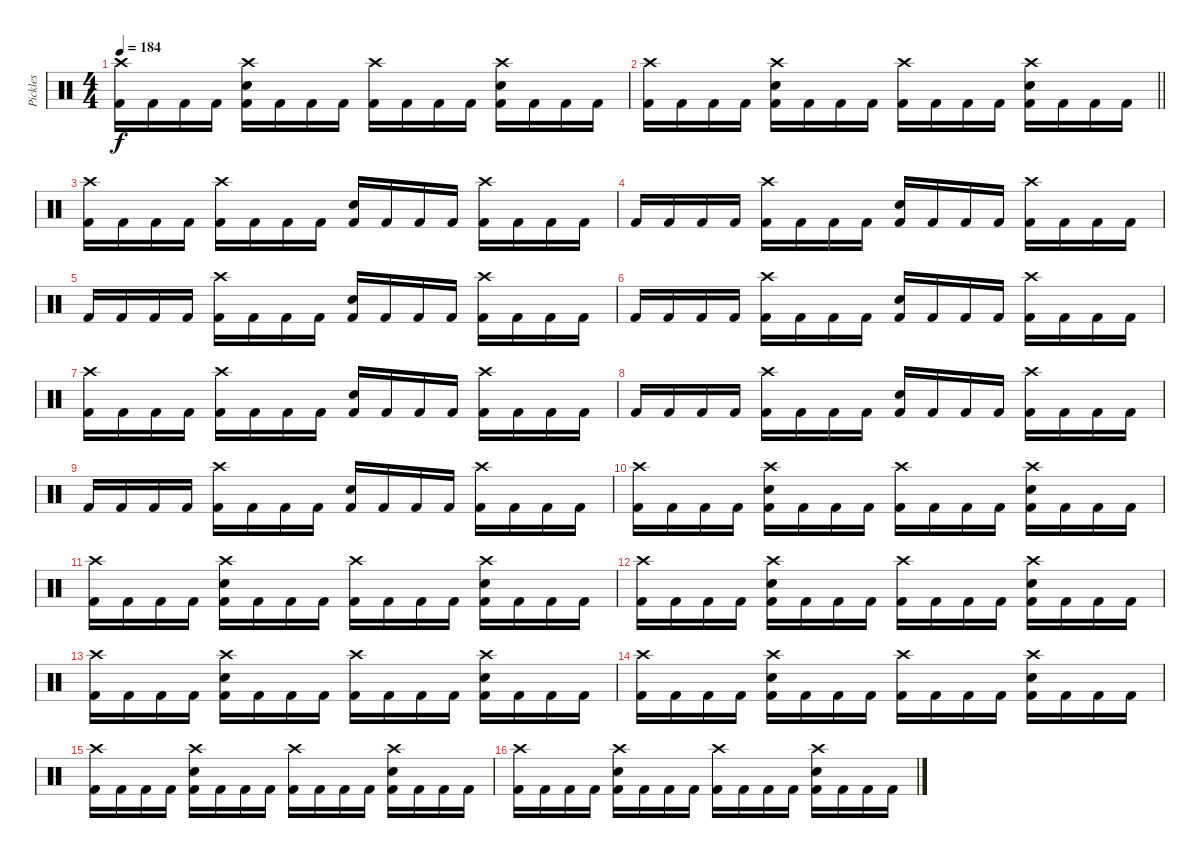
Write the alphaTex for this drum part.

\track ("Pickles" "Pickles") {instrument percussion}
\staff {score}
\articulation defaults
\ts (4 4)
\tempo 184
\clef neutral
\ks aminor
("Crash high (hit)" "Kick (hit) 2").16{dy f} "Kick (hit) 2".16 "Kick (hit) 2".16 "Kick (hit) 2".16 ("Crash high (hit)" "Snare (hit) 2" "Kick (hit) 2").16 "Kick (hit) 2".16 "Kick (hit) 2".16 "Kick (hit) 2".16 ("Crash high (hit)" "Kick (hit) 2").16 "Kick (hit) 2".16 "Kick (hit) 2".16 "Kick (hit) 2".16 ("Crash high (hit)" "Snare (hit) 2" "Kick (hit) 2").16 "Kick (hit) 2".16 "Kick (hit) 2".16 "Kick (hit) 2".16 |
\barLineRight lightlight
("Crash high (hit)" "Kick (hit) 2").16 "Kick (hit) 2".16 "Kick (hit) 2".16 "Kick (hit) 2".16 ("Crash high (hit)" "Snare (hit) 2" "Kick (hit) 2").16 "Kick (hit) 2".16 "Kick (hit) 2".16 "Kick (hit) 2".16 ("Crash high (hit)" "Kick (hit) 2").16 "Kick (hit) 2".16 "Kick (hit) 2".16 "Kick (hit) 2".16 ("Crash high (hit)" "Snare (hit) 2" "Kick (hit) 2").16 "Kick (hit) 2".16 "Kick (hit) 2".16 "Kick (hit) 2".16 |
("Crash high (hit)" "Kick (hit) 2").16 "Kick (hit) 2".16 "Kick (hit) 2".16 "Kick (hit) 2".16 ("Crash high (hit)" "Kick (hit) 2").16 "Kick (hit) 2".16 "Kick (hit) 2".16 "Kick (hit) 2".16 ("Snare (hit) 2" "Kick (hit) 2").16 "Kick (hit) 2".16 "Kick (hit) 2".16 "Kick (hit) 2".16 ("Crash high (hit)" "Kick (hit) 2").16 "Kick (hit) 2".16 "Kick (hit) 2".16 "Kick (hit) 2".16 |
"Kick (hit) 2".16 "Kick (hit) 2".16 "Kick (hit) 2".16 "Kick (hit) 2".16 ("Crash high (hit)" "Kick (hit) 2").16 "Kick (hit) 2".16 "Kick (hit) 2".16 "Kick (hit) 2".16 ("Snare (hit) 2" "Kick (hit) 2").16 "Kick (hit) 2".16 "Kick (hit) 2".16 "Kick (hit) 2".16 ("Crash high (hit)" "Kick (hit) 2").16 "Kick (hit) 2".16 "Kick (hit) 2".16 "Kick (hit) 2".16 |
"Kick (hit) 2".16 "Kick (hit) 2".16 "Kick (hit) 2".16 "Kick (hit) 2".16 ("Crash high (hit)" "Kick (hit) 2").16 "Kick (hit) 2".16 "Kick (hit) 2".16 "Kick (hit) 2".16 ("Snare (hit) 2" "Kick (hit) 2").16 "Kick (hit) 2".16 "Kick (hit) 2".16 "Kick (hit) 2".16 ("Crash high (hit)" "Kick (hit) 2").16 "Kick (hit) 2".16 "Kick (hit) 2".16 "Kick (hit) 2".16 |
"Kick (hit) 2".16 "Kick (hit) 2".16 "Kick (hit) 2".16 "Kick (hit) 2".16 ("Crash high (hit)" "Kick (hit) 2").16 "Kick (hit) 2".16 "Kick (hit) 2".16 "Kick (hit) 2".16 ("Snare (hit) 2" "Kick (hit) 2").16 "Kick (hit) 2".16 "Kick (hit) 2".16 "Kick (hit) 2".16 ("Crash high (hit)" "Kick (hit) 2").16 "Kick (hit) 2".16 "Kick (hit) 2".16 "Kick (hit) 2".16 |
("Crash high (hit)" "Kick (hit) 2").16 "Kick (hit) 2".16 "Kick (hit) 2".16 "Kick (hit) 2".16 ("Crash high (hit)" "Kick (hit) 2").16 "Kick (hit) 2".16 "Kick (hit) 2".16 "Kick (hit) 2".16 ("Snare (hit) 2" "Kick (hit) 2").16 "Kick (hit) 2".16 "Kick (hit) 2".16 "Kick (hit) 2".16 ("Crash high (hit)" "Kick (hit) 2").16 "Kick (hit) 2".16 "Kick (hit) 2".16 "Kick (hit) 2".16 |
"Kick (hit) 2".16 "Kick (hit) 2".16 "Kick (hit) 2".16 "Kick (hit) 2".16 ("Crash high (hit)" "Kick (hit) 2").16 "Kick (hit) 2".16 "Kick (hit) 2".16 "Kick (hit) 2".16 ("Snare (hit) 2" "Kick (hit) 2").16 "Kick (hit) 2".16 "Kick (hit) 2".16 "Kick (hit) 2".16 ("Crash high (hit)" "Kick (hit) 2").16 "Kick (hit) 2".16 "Kick (hit) 2".16 "Kick (hit) 2".16 |
"Kick (hit) 2".16 "Kick (hit) 2".16 "Kick (hit) 2".16 "Kick (hit) 2".16 ("Crash high (hit)" "Kick (hit) 2").16 "Kick (hit) 2".16 "Kick (hit) 2".16 "Kick (hit) 2".16 ("Snare (hit) 2" "Kick (hit) 2").16 "Kick (hit) 2".16 "Kick (hit) 2".16 "Kick (hit) 2".16 ("Crash high (hit)" "Kick (hit) 2").16 "Kick (hit) 2".16 "Kick (hit) 2".16 "Kick (hit) 2".16 |
("Crash high (hit)" "Kick (hit) 2").16 "Kick (hit) 2".16 "Kick (hit) 2".16 "Kick (hit) 2".16 ("Crash high (hit)" "Snare (hit) 2" "Kick (hit) 2").16 "Kick (hit) 2".16 "Kick (hit) 2".16 "Kick (hit) 2".16 ("Crash high (hit)" "Kick (hit) 2").16 "Kick (hit) 2".16 "Kick (hit) 2".16 "Kick (hit) 2".16 ("Crash high (hit)" "Snare (hit) 2" "Kick (hit) 2").16 "Kick (hit) 2".16 "Kick (hit) 2".16 "Kick (hit) 2".16 |
("Crash high (hit)" "Kick (hit) 2").16 "Kick (hit) 2".16 "Kick (hit) 2".16 "Kick (hit) 2".16 ("Crash high (hit)" "Snare (hit) 2" "Kick (hit) 2").16 "Kick (hit) 2".16 "Kick (hit) 2".16 "Kick (hit) 2".16 ("Crash high (hit)" "Kick (hit) 2").16 "Kick (hit) 2".16 "Kick (hit) 2".16 "Kick (hit) 2".16 ("Crash high (hit)" "Snare (hit) 2" "Kick (hit) 2").16 "Kick (hit) 2".16 "Kick (hit) 2".16 "Kick (hit) 2".16 |
("Crash high (hit)" "Kick (hit) 2").16 "Kick (hit) 2".16 "Kick (hit) 2".16 "Kick (hit) 2".16 ("Crash high (hit)" "Snare (hit) 2" "Kick (hit) 2").16 "Kick (hit) 2".16 "Kick (hit) 2".16 "Kick (hit) 2".16 ("Crash high (hit)" "Kick (hit) 2").16 "Kick (hit) 2".16 "Kick (hit) 2".16 "Kick (hit) 2".16 ("Crash high (hit)" "Snare (hit) 2" "Kick (hit) 2").16 "Kick (hit) 2".16 "Kick (hit) 2".16 "Kick (hit) 2".16 |
("Crash high (hit)" "Kick (hit) 2").16 "Kick (hit) 2".16 "Kick (hit) 2".16 "Kick (hit) 2".16 ("Crash high (hit)" "Snare (hit) 2" "Kick (hit) 2").16 "Kick (hit) 2".16 "Kick (hit) 2".16 "Kick (hit) 2".16 ("Crash high (hit)" "Kick (hit) 2").16 "Kick (hit) 2".16 "Kick (hit) 2".16 "Kick (hit) 2".16 ("Crash high (hit)" "Snare (hit) 2" "Kick (hit) 2").16 "Kick (hit) 2".16 "Kick (hit) 2".16 "Kick (hit) 2".16 |
("Crash high (hit)" "Kick (hit) 2").16 "Kick (hit) 2".16 "Kick (hit) 2".16 "Kick (hit) 2".16 ("Crash high (hit)" "Snare (hit) 2" "Kick (hit) 2").16 "Kick (hit) 2".16 "Kick (hit) 2".16 "Kick (hit) 2".16 ("Crash high (hit)" "Kick (hit) 2").16 "Kick (hit) 2".16 "Kick (hit) 2".16 "Kick (hit) 2".16 ("Crash high (hit)" "Snare (hit) 2" "Kick (hit) 2").16 "Kick (hit) 2".16 "Kick (hit) 2".16 "Kick (hit) 2".16 |
("Crash high (hit)" "Kick (hit) 2").16 "Kick (hit) 2".16 "Kick (hit) 2".16 "Kick (hit) 2".16 ("Crash high (hit)" "Snare (hit) 2" "Kick (hit) 2").16 "Kick (hit) 2".16 "Kick (hit) 2".16 "Kick (hit) 2".16 ("Crash high (hit)" "Kick (hit) 2").16 "Kick (hit) 2".16 "Kick (hit) 2".16 "Kick (hit) 2".16 ("Crash high (hit)" "Snare (hit) 2" "Kick (hit) 2").16 "Kick (hit) 2".16 "Kick (hit) 2".16 "Kick (hit) 2".16 |
("Crash high (hit)" "Kick (hit) 2").16 "Kick (hit) 2".16 "Kick (hit) 2".16 "Kick (hit) 2".16 ("Crash high (hit)" "Snare (hit) 2" "Kick (hit) 2").16 "Kick (hit) 2".16 "Kick (hit) 2".16 "Kick (hit) 2".16 ("Crash high (hit)" "Kick (hit) 2").16 "Kick (hit) 2".16 "Kick (hit) 2".16 "Kick (hit) 2".16 ("Crash high (hit)" "Snare (hit) 2" "Kick (hit) 2").16 "Kick (hit) 2".16 "Kick (hit) 2".16 "Kick (hit) 2".16
